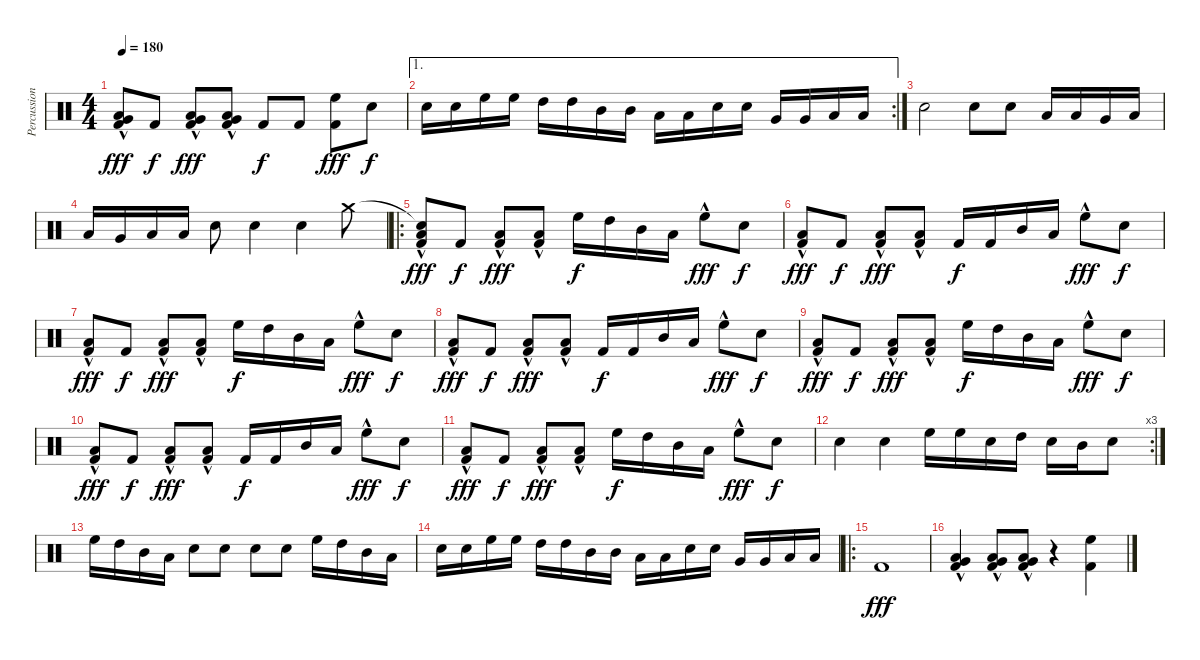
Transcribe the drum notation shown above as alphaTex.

\track ("Percussion" "Percussion") {instrument percussion}
\staff {score}
\articulation defaults
\ts (4 4)
\tempo 180
\clef neutral
\ks c
("Low Tom (hit)"{hac} "Very Low Tom (hit)"{hac} "Kick (hit) 2").8{dy fff} "Kick (hit) 2".8{dy f} ("Low Tom (hit)"{hac} "Very Low Tom (hit)"{hac} "Kick (hit) 2").8{dy fff} ("Low Tom (hit)"{hac} "Very Low Tom (hit)"{hac} "Kick (hit) 2").8 "Kick (hit) 2".8{dy f} "Kick (hit) 2".8 ("High Floor Tom (hit)" "Kick (hit) 2").8{dy fff} "Snare (hit) 2".8{dy f} |
\ae 1
\rc 2 "Snare (hit) 2".16 "Snare (hit) 2".16 "High Floor Tom (hit)".16 "High Floor Tom (hit)".16 "High Tom (hit)".16 "High Tom (hit)".16 "Mid Tom (hit)".16 "Mid Tom (hit)".16 "Low Tom (hit)".16 "Low Tom (hit)".16 "Snare (hit) 2".16 "Snare (hit) 2".16 "Very Low Tom (hit)".16 "Very Low Tom (hit)".16 "Low Floor Tom (hit)".16 "Low Floor Tom (hit)".16
|
"Snare (hit) 2".2 "Snare (hit) 2".8 "Snare (hit) 2".8 "Low Tom (hit)".16 "Low Tom (hit)".16 "Very Low Tom (hit)".16 "Low Floor Tom (hit)".16 |
"Low Floor Tom (hit)".16 "Very Low Tom (hit)".16 "Low Tom (hit)".16 "Low Tom (hit)".16 "Snare (hit) 2".8 "Snare (hit) 2".4 "Snare (hit) 2".4 "Crash medium (hit)".8 |
\ro
("Snare (hit)"{t} "Low Tom (hit)"{hac} "Kick (hit) 2").8{dy fff} "Kick (hit) 2".8{dy f} ("Low Tom (hit)"{hac} "Kick (hit) 2").8{dy fff} ("Low Tom (hit)"{hac} "Kick (hit) 2").8 "High Floor Tom (hit)".16{dy f} "High Tom (hit)".16 "Mid Tom (hit)".16 "Low Tom (hit)".16 "High Floor Tom (hit)"{hac}.8{dy fff} "Snare (hit) 2".8{dy f} |
("Low Tom (hit)"{hac} "Kick (hit) 2").8{dy fff} "Kick (hit) 2".8{dy f} ("Low Tom (hit)"{hac} "Kick (hit) 2").8{dy fff} ("Low Tom (hit)"{hac} "Kick (hit) 2").8 "Kick (hit) 2".16{dy f} "Kick (hit) 2".16 "Mid Tom (hit)".16 "Low Tom (hit)".16 "High Floor Tom (hit)"{hac}.8{dy fff} "Snare (hit) 2".8{dy f} |
("Low Tom (hit)"{hac} "Kick (hit) 2").8{dy fff} "Kick (hit) 2".8{dy f} ("Low Tom (hit)"{hac} "Kick (hit) 2").8{dy fff} ("Low Tom (hit)"{hac} "Kick (hit) 2").8 "High Floor Tom (hit)".16{dy f} "High Tom (hit)".16 "Mid Tom (hit)".16 "Low Tom (hit)".16 "High Floor Tom (hit)"{hac}.8{dy fff} "Snare (hit) 2".8{dy f} |
("Low Tom (hit)"{hac} "Kick (hit) 2").8{dy fff} "Kick (hit) 2".8{dy f} ("Low Tom (hit)"{hac} "Kick (hit) 2").8{dy fff} ("Low Tom (hit)"{hac} "Kick (hit) 2").8 "Kick (hit) 2".16{dy f} "Kick (hit) 2".16 "Mid Tom (hit)".16 "Low Tom (hit)".16 "High Floor Tom (hit)"{hac}.8{dy fff} "Snare (hit) 2".8{dy f} |
("Low Tom (hit)"{hac} "Kick (hit) 2").8{dy fff} "Kick (hit) 2".8{dy f} ("Low Tom (hit)"{hac} "Kick (hit) 2").8{dy fff} ("Low Tom (hit)"{hac} "Kick (hit) 2").8 "High Floor Tom (hit)".16{dy f} "High Tom (hit)".16 "Mid Tom (hit)".16 "Low Tom (hit)".16 "High Floor Tom (hit)"{hac}.8{dy fff} "Snare (hit) 2".8{dy f} |
("Low Tom (hit)"{hac} "Kick (hit) 2").8{dy fff} "Kick (hit) 2".8{dy f} ("Low Tom (hit)"{hac} "Kick (hit) 2").8{dy fff} ("Low Tom (hit)"{hac} "Kick (hit) 2").8 "Kick (hit) 2".16{dy f} "Kick (hit) 2".16 "Mid Tom (hit)".16 "Low Tom (hit)".16 "High Floor Tom (hit)"{hac}.8{dy fff} "Snare (hit) 2".8{dy f} |
("Low Tom (hit)"{hac} "Kick (hit) 2").8{dy fff} "Kick (hit) 2".8{dy f} ("Low Tom (hit)"{hac} "Kick (hit) 2").8{dy fff} ("Low Tom (hit)"{hac} "Kick (hit) 2").8 "High Floor Tom (hit)".16{dy f} "High Tom (hit)".16 "Mid Tom (hit)".16 "Low Tom (hit)".16 "High Floor Tom (hit)"{hac}.8{dy fff} "Snare (hit) 2".8{dy f} |
\rc 3 "Snare (hit) 2".4 "Snare (hit) 2".4 "High Floor Tom (hit)".16 "High Floor Tom (hit)".16 "Snare (hit) 2".16 "High Tom (hit)".16 "Snare (hit) 2".16 "Mid Tom (hit)".16 "Snare (hit) 2".8
|
"High Floor Tom (hit)".16 "High Tom (hit)".16 "Mid Tom (hit)".16 "Low Tom (hit)".16 "Snare (hit) 2".8 "Snare (hit) 2".8 "Snare (hit) 2".8 "Snare (hit) 2".8 "High Floor Tom (hit)".16 "High Tom (hit)".16 "Mid Tom (hit)".16 "Low Tom (hit)".16 |
"Snare (hit) 2".16 "Snare (hit) 2".16 "High Floor Tom (hit)".16 "High Floor Tom (hit)".16 "High Tom (hit)".16 "High Tom (hit)".16 "Mid Tom (hit)".16 "Mid Tom (hit)".16 "Low Tom (hit)".16 "Low Tom (hit)".16 "Snare (hit) 2".16 "Snare (hit) 2".16 "Very Low Tom (hit)".16 "Very Low Tom (hit)".16 "Low Floor Tom (hit)".16 "Low Floor Tom (hit)".16 |
\ro "Kick (hit) 2".1{dy fff}
|
("Low Tom (hit)" "Very Low Tom (hit)"{hac} "Kick (hit) 2").4 ("Low Tom (hit)" "Very Low Tom (hit)"{hac} "Kick (hit) 2").8 ("Low Tom (hit)" "Very Low Tom (hit)"{hac} "Kick (hit) 2").8 r.4 ("High Floor Tom (hit)" "Kick (hit) 2").4
